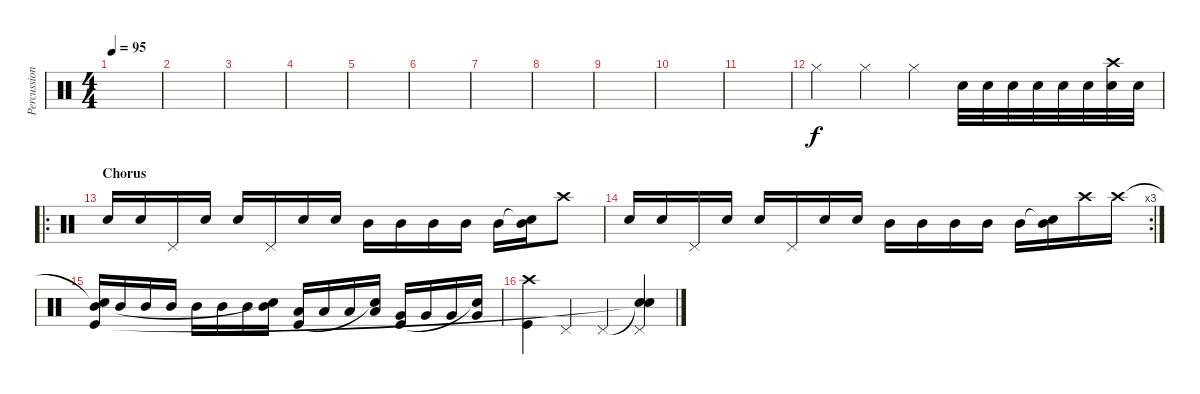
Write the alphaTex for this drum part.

\track ("Percussions" "Percussion") {instrument percussion}
\staff {score}
\articulation defaults
\ts (4 4)
\tempo 95
\clef neutral
\ks c
|
|
|
|
|
|
|
|
|
|
|
"Hi-Hat (closed)".4 "Hi-Hat (closed)".4 "Hi-Hat (closed)".4 "Snare (hit) 2".32 "Snare (hit) 2".32 "Snare (hit) 2".32 "Snare (hit) 2".32 "Snare (hit) 2".32 "Snare (hit) 2".32 ("Crash high (hit)" "Snare (hit) 2").32 "Snare (hit) 2".32 |
\ro
\section ("" "Chorus")
"Snare (hit) 2".16 "Snare (hit) 2".16 "Pedal Hi-Hat (hit)".16 "Snare (hit) 2".16 "Snare (hit) 2".16 "Pedal Hi-Hat (hit)".16 "Snare (hit) 2".16 "Snare (hit) 2".16 "Mid Tom (hit)".16 "Mid Tom (hit)".16 "Mid Tom (hit)".16 "Mid Tom (hit)".16 "Mid Tom (hit)".16 ("Snare (hit)"{t} "Mid Tom (hit)").16 "Crash high (hit)".8 |
\rc 3 "Snare (hit) 2".16 "Snare (hit) 2".16 "Pedal Hi-Hat (hit)".16 "Snare (hit) 2".16 "Snare (hit) 2".16 "Pedal Hi-Hat (hit)".16 "Snare (hit) 2".16 "Snare (hit) 2".16 "Mid Tom (hit)".16 "Mid Tom (hit)".16 "Mid Tom (hit)".16 "Mid Tom (hit)".16 "Mid Tom (hit)".16
("Snare (hit)"{t} "Mid Tom (hit)").16 "Crash high (hit)".16 "Crash high (hit)".16 |
("Snare (hit)"{t} "Mid Tom (hit)" "Kick (hit)").16 "Mid Tom (hit)".16 "Mid Tom (hit)".16 "Mid Tom (hit)".16 "Mid Tom (hit)".16 "Mid Tom (hit)".16 "Mid Tom (hit)".16 ("Mid Tom (hit)" "Snare (hit)"{t}).16 ("Low Tom (hit)" "Kick (hit)").16 "Low Tom (hit)".16 "Low Tom (hit)".16 ("Low Tom (hit)" "Snare (hit)"{t}).16 ("Very Low Tom (hit)" "Kick (hit)").16 "Very Low Tom (hit)".16 "Very Low Tom (hit)".16 ("Very Low Tom (hit)" "Snare (hit)"{t}).16 |
("Crash high (hit)" "Kick (hit)").4 "Pedal Hi-Hat (hit)".4 "Pedal Hi-Hat (hit)".4 ("Snare (hit)"{t} "Pedal Hi-Hat (hit)" "Snare (hit)"{t}).4
